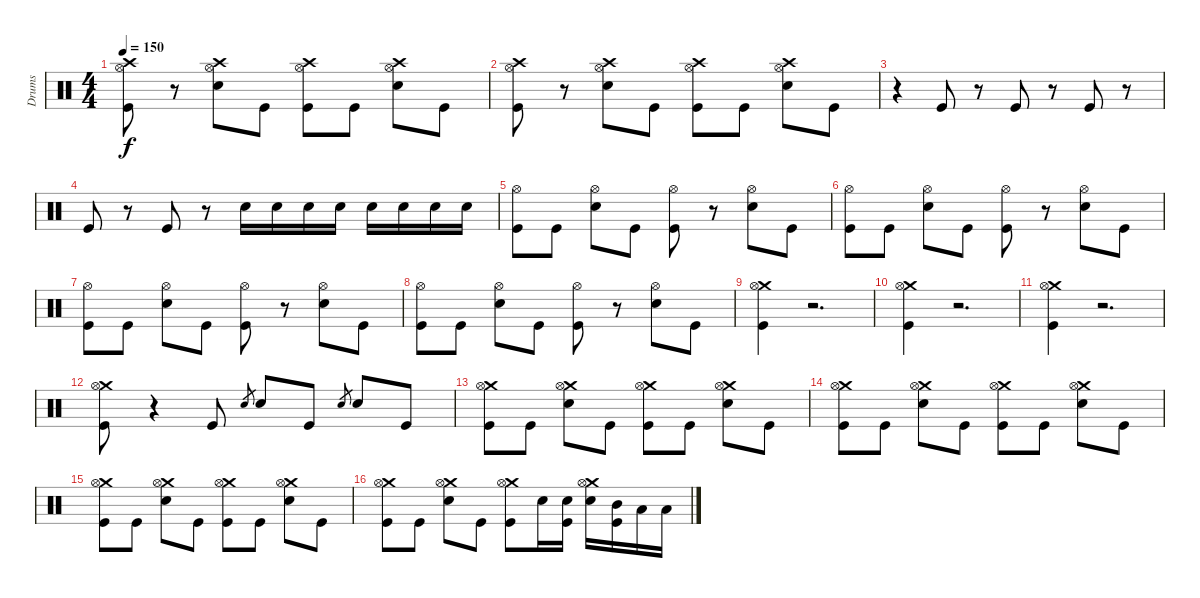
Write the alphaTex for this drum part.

\track ("Drums" "Drums") {instrument percussion}
\staff {score}
\articulation defaults
\ts (4 4)
\tempo 150
\clef neutral
\ks c
("Crash high (hit)" "Hi-Hat (open)" "Kick (hit)").8{dy f} r.8 ("Crash high (hit)" "Hi-Hat (open)" "Snare (hit) 2").8 "Kick (hit)".8 ("Crash high (hit)" "Hi-Hat (open)" "Kick (hit)").8 "Kick (hit)".8 ("Crash high (hit)" "Hi-Hat (open)" "Snare (hit) 2").8 "Kick (hit)".8 |
("Crash high (hit)" "Hi-Hat (open)" "Kick (hit)").8 r.8 ("Crash high (hit)" "Hi-Hat (open)" "Snare (hit) 2").8 "Kick (hit)".8 ("Crash high (hit)" "Hi-Hat (open)" "Kick (hit)").8 "Kick (hit)".8 ("Crash high (hit)" "Hi-Hat (open)" "Snare (hit) 2").8 "Kick (hit)".8 |
r.4 "Kick (hit)".8 r.8 "Kick (hit)".8 r.8 "Kick (hit)".8 r.8 |
"Kick (hit)".8 r.8 "Kick (hit)".8 r.8 "Snare (hit) 2".16 "Snare (hit) 2".16 "Snare (hit) 2".16 "Snare (hit) 2".16 "Snare (hit) 2".16 "Snare (hit) 2".16 "Snare (hit) 2".16 "Snare (hit) 2".16 |
("Hi-Hat (open)" "Kick (hit)").8 "Kick (hit)".8 ("Hi-Hat (open)" "Snare (hit) 2").8 "Kick (hit)".8 ("Hi-Hat (open)" "Kick (hit)").8 r.8 ("Hi-Hat (open)" "Snare (hit) 2").8 "Kick (hit)".8 |
("Hi-Hat (open)" "Kick (hit)").8 "Kick (hit)".8 ("Hi-Hat (open)" "Snare (hit) 2").8 "Kick (hit)".8 ("Hi-Hat (open)" "Kick (hit)").8 r.8 ("Hi-Hat (open)" "Snare (hit) 2").8 "Kick (hit)".8 |
("Hi-Hat (open)" "Kick (hit)").8 "Kick (hit)".8 ("Hi-Hat (open)" "Snare (hit) 2").8 "Kick (hit)".8 ("Hi-Hat (open)" "Kick (hit)").8 r.8 ("Hi-Hat (open)" "Snare (hit) 2").8 "Kick (hit)".8 |
("Hi-Hat (open)" "Kick (hit)").8 "Kick (hit)".8 ("Hi-Hat (open)" "Snare (hit) 2").8 "Kick (hit)".8 ("Hi-Hat (open)" "Kick (hit)").8 r.8 ("Hi-Hat (open)" "Snare (hit) 2").8 "Kick (hit)".8 |
("Crash medium (hit)" "Hi-Hat (open)" "Kick (hit)").4 r.2{d} |
("Crash medium (hit)" "Hi-Hat (open)" "Kick (hit)").4 r.2{d} |
("Crash medium (hit)" "Hi-Hat (open)" "Kick (hit)").4 r.2{d} |
("Crash medium (hit)" "Hi-Hat (open)" "Kick (hit)").8 r.4 "Kick (hit)".8 "Snare (hit) 2".8{gr} "Snare (hit) 2".8 "Kick (hit)".8 "Snare (hit) 2".8{gr} "Snare (hit) 2".8 "Kick (hit)".8 |
("Crash medium (hit)" "Hi-Hat (open)" "Kick (hit)").8 "Kick (hit)".8 ("Crash medium (hit)" "Hi-Hat (open)" "Snare (hit) 2").8 "Kick (hit)".8 ("Crash medium (hit)" "Hi-Hat (open)" "Kick (hit)").8 "Kick (hit)".8 ("Crash medium (hit)" "Hi-Hat (open)" "Snare (hit) 2").8 "Kick (hit)".8 |
("Crash medium (hit)" "Hi-Hat (open)" "Kick (hit)").8 "Kick (hit)".8 ("Crash medium (hit)" "Hi-Hat (open)" "Snare (hit) 2").8 "Kick (hit)".8 ("Crash medium (hit)" "Hi-Hat (open)" "Kick (hit)").8 "Kick (hit)".8 ("Crash medium (hit)" "Hi-Hat (open)" "Snare (hit) 2").8 "Kick (hit)".8 |
("Crash medium (hit)" "Hi-Hat (open)" "Kick (hit)").8 "Kick (hit)".8 ("Crash medium (hit)" "Hi-Hat (open)" "Snare (hit) 2").8 "Kick (hit)".8 ("Crash medium (hit)" "Hi-Hat (open)" "Kick (hit)").8 "Kick (hit)".8 ("Crash medium (hit)" "Hi-Hat (open)" "Snare (hit) 2").8 "Kick (hit)".8 |
("Crash medium (hit)" "Hi-Hat (open)" "Kick (hit)").8 "Kick (hit)".8 ("Crash medium (hit)" "Hi-Hat (open)" "Snare (hit) 2").8 "Kick (hit)".8 ("Crash medium (hit)" "Hi-Hat (open)" "Kick (hit)").8 "Snare (hit) 2".16 ("Snare (hit) 2" "Kick (hit)").16 ("Crash medium (hit)" "Hi-Hat (open)" "Snare (hit) 2").16 ("Mid Tom (hit)" "Kick (hit)").16 "Low Tom (hit)".16 "Low Tom (hit)".16
